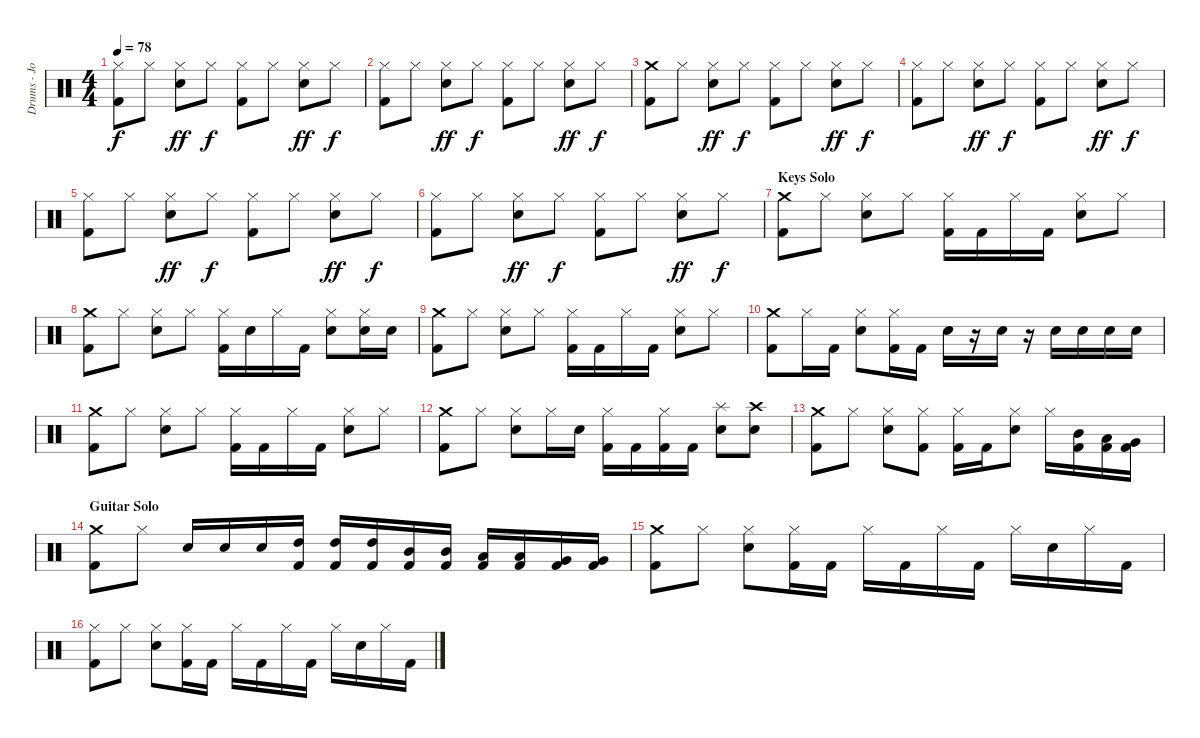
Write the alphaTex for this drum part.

\track ("Drums - Jorg Michael" "Drums - Jo") {instrument percussion}
\staff {score}
\articulation defaults
\ts (4 4)
\tempo 78
\clef neutral
\ks c
("Hi-Hat (closed)" "Kick (hit) 2").8{dy f} "Hi-Hat (closed)".8 ("Hi-Hat (closed)" "Electric Snare (hit)").8{dy ff} "Hi-Hat (closed)".8{dy f} ("Hi-Hat (closed)" "Kick (hit) 2").8 "Hi-Hat (closed)".8 ("Hi-Hat (closed)" "Electric Snare (hit)").8{dy ff} "Hi-Hat (closed)".8{dy f} |
("Hi-Hat (closed)" "Kick (hit) 2").8 "Hi-Hat (closed)".8 ("Hi-Hat (closed)" "Electric Snare (hit)").8{dy ff} "Hi-Hat (closed)".8{dy f} ("Hi-Hat (closed)" "Kick (hit) 2").8 "Hi-Hat (closed)".8 ("Hi-Hat (closed)" "Electric Snare (hit)").8{dy ff} "Hi-Hat (closed)".8{dy f} |
("Crash medium (hit)" "Kick (hit) 2").8 "Hi-Hat (closed)".8 ("Hi-Hat (closed)" "Electric Snare (hit)").8{dy ff} "Hi-Hat (closed)".8{dy f} ("Hi-Hat (closed)" "Kick (hit) 2").8 "Hi-Hat (closed)".8 ("Hi-Hat (closed)" "Electric Snare (hit)").8{dy ff} "Hi-Hat (closed)".8{dy f} |
("Hi-Hat (closed)" "Kick (hit) 2").8 "Hi-Hat (closed)".8 ("Hi-Hat (closed)" "Electric Snare (hit)").8{dy ff} "Hi-Hat (closed)".8{dy f} ("Hi-Hat (closed)" "Kick (hit) 2").8 "Hi-Hat (closed)".8 ("Hi-Hat (closed)" "Electric Snare (hit)").8{dy ff} "Hi-Hat (closed)".8{dy f} |
("Hi-Hat (closed)" "Kick (hit) 2").8 "Hi-Hat (closed)".8 ("Hi-Hat (closed)" "Electric Snare (hit)").8{dy ff} "Hi-Hat (closed)".8{dy f} ("Hi-Hat (closed)" "Kick (hit) 2").8 "Hi-Hat (closed)".8 ("Hi-Hat (closed)" "Electric Snare (hit)").8{dy ff} "Hi-Hat (closed)".8{dy f} |
("Hi-Hat (closed)" "Kick (hit) 2").8 "Hi-Hat (closed)".8 ("Hi-Hat (closed)" "Electric Snare (hit)").8{dy ff} "Hi-Hat (closed)".8{dy f} ("Hi-Hat (closed)" "Kick (hit) 2").8 "Hi-Hat (closed)".8 ("Hi-Hat (closed)" "Electric Snare (hit)").8{dy ff} "Hi-Hat (closed)".8{dy f} |
\section ("" "Keys Solo")
("Crash medium (hit)" "Kick (hit) 2").8 "Hi-Hat (closed)".8 ("Hi-Hat (closed)" "Electric Snare (hit)").8 "Hi-Hat (closed)".8 ("Hi-Hat (closed)" "Kick (hit) 2").16 "Kick (hit) 2".16 "Hi-Hat (closed)".16 "Kick (hit) 2".16 ("Hi-Hat (closed)" "Electric Snare (hit)").8 "Hi-Hat (closed)".8 |
("Crash medium (hit)" "Kick (hit) 2").8 "Hi-Hat (closed)".8 ("Hi-Hat (closed)" "Electric Snare (hit)").8 "Hi-Hat (closed)".8 ("Hi-Hat (closed)" "Kick (hit) 2").16 "Electric Snare (hit)".16 "Hi-Hat (closed)".16 "Kick (hit) 2".16 ("Hi-Hat (closed)" "Electric Snare (hit)").8 ("Hi-Hat (closed)" "Electric Snare (hit)").16 "Electric Snare (hit)".16 |
("Crash medium (hit)" "Kick (hit) 2").8 "Hi-Hat (closed)".8 ("Hi-Hat (closed)" "Electric Snare (hit)").8 "Hi-Hat (closed)".8 ("Hi-Hat (closed)" "Kick (hit) 2").16 "Kick (hit) 2".16 "Hi-Hat (closed)".16 "Kick (hit) 2".16 ("Hi-Hat (closed)" "Electric Snare (hit)").8 "Hi-Hat (closed)".8 |
("Crash medium (hit)" "Kick (hit) 2").8 "Hi-Hat (closed)".16 "Kick (hit) 2".16 ("Hi-Hat (closed)" "Electric Snare (hit)").8 ("Hi-Hat (closed)" "Kick (hit) 2").16 "Kick (hit) 2".16 "Electric Snare (hit)".16 r.16 "Electric Snare (hit)".16 r.16 "Electric Snare (hit)".16 "Electric Snare (hit)".16 "Electric Snare (hit)".16 "Electric Snare (hit)".16 |
("Crash medium (hit)" "Kick (hit) 2").8 "Hi-Hat (closed)".8 ("Hi-Hat (closed)" "Electric Snare (hit)").8 "Hi-Hat (closed)".8 ("Hi-Hat (closed)" "Kick (hit) 2").16 "Kick (hit) 2".16 "Hi-Hat (closed)".16 "Kick (hit) 2".16 ("Hi-Hat (closed)" "Electric Snare (hit)").8 "Hi-Hat (closed)".8 |
("Crash medium (hit)" "Kick (hit) 2").8 "Hi-Hat (closed)".8 ("Hi-Hat (closed)" "Electric Snare (hit)").8 "Hi-Hat (closed)".16 "Electric Snare (hit)".16 ("Hi-Hat (closed)" "Kick (hit) 2").16 "Kick (hit) 2".16 ("Hi-Hat (closed)" "Kick (hit) 2").16 "Kick (hit) 2".16 ("Splash (hit)" "Electric Snare (hit)").8 ("Crash high (hit)" "Electric Snare (hit)").8 |
("Crash medium (hit)" "Kick (hit) 2").8 "Hi-Hat (closed)".8 ("Hi-Hat (closed)" "Electric Snare (hit)").8 ("Hi-Hat (closed)" "Kick (hit) 2").8 ("Hi-Hat (closed)" "Kick (hit) 2").16 "Kick (hit) 2".16 ("Hi-Hat (closed)" "Electric Snare (hit)").8 "Hi-Hat (closed)".16 ("Mid Tom (hit)" "Kick (hit) 2").16 ("Low Tom (hit)" "Kick (hit) 2").16 ("Very Low Tom (hit)" "Kick (hit) 2").16 |
\section ("" "Guitar Solo")
("Crash medium (hit)" "Kick (hit) 2").8 "Hi-Hat (closed)".8 "Electric Snare (hit)".16 "Electric Snare (hit)".16 "Electric Snare (hit)".16 ("High Tom (hit)" "Kick (hit) 2").16 ("High Tom (hit)" "Kick (hit) 2").16 ("High Tom (hit)" "Kick (hit) 2").16 ("Mid Tom (hit)" "Kick (hit) 2").16 ("Mid Tom (hit)" "Kick (hit) 2").16 ("Low Tom (hit)" "Kick (hit) 2").16 ("Low Tom (hit)" "Kick (hit) 2").16 ("Very Low Tom (hit)" "Kick (hit) 2").16 ("Very Low Tom (hit)" "Kick (hit) 2").16 |
("Crash medium (hit)" "Kick (hit) 2").8 "Hi-Hat (closed)".8 ("Hi-Hat (closed)" "Electric Snare (hit)").8 ("Hi-Hat (closed)" "Kick (hit) 2").16 "Kick (hit) 2".16 "Hi-Hat (closed)".16 "Kick (hit) 2".16 "Hi-Hat (closed)".16 "Kick (hit) 2".16 "Hi-Hat (closed)".16 "Electric Snare (hit)".16 "Hi-Hat (closed)".16 "Kick (hit) 2".16 |
("Hi-Hat (closed)" "Kick (hit) 2").8 "Hi-Hat (closed)".8 ("Hi-Hat (closed)" "Electric Snare (hit)").8 ("Hi-Hat (closed)" "Kick (hit) 2").16 "Kick (hit) 2".16 "Hi-Hat (closed)".16 "Kick (hit) 2".16 "Hi-Hat (closed)".16 "Kick (hit) 2".16 "Hi-Hat (closed)".16 "Electric Snare (hit)".16 "Hi-Hat (closed)".16 "Kick (hit) 2".16
